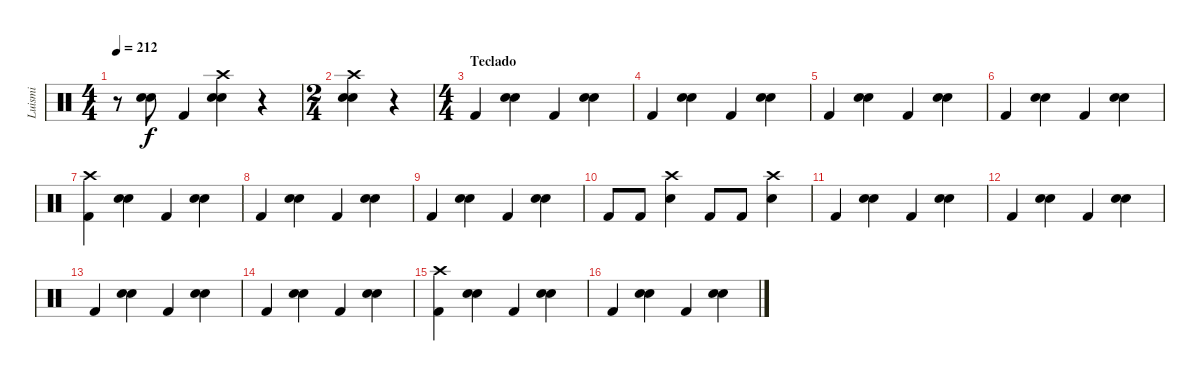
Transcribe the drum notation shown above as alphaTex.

\track ("Luismi" "Luismi") {instrument percussion}
\staff {score}
\articulation defaults
\ts (4 4)
\tempo 212
\clef neutral
\ks c
r.8{dy f} ("Electric Snare (hit)" "Snare (hit) 2").8 "Kick (hit) 2".4 ("Crash high (hit)" "Electric Snare (hit)" "Snare (hit) 2").4 r.4 |
\ts (2 4)
("Crash high (hit)" "Electric Snare (hit)" "Snare (hit) 2").4 r.4 |
\ts (4 4)
\section ("" "Teclado")
"Kick (hit) 2".4 ("Electric Snare (hit)" "Snare (hit) 2").4 "Kick (hit) 2".4 ("Electric Snare (hit)" "Snare (hit) 2").4 |
"Kick (hit) 2".4 ("Electric Snare (hit)" "Snare (hit) 2").4 "Kick (hit) 2".4 ("Electric Snare (hit)" "Snare (hit) 2").4 |
"Kick (hit) 2".4 ("Snare (hit) 2" "Electric Snare (hit)").4 "Kick (hit) 2".4 ("Electric Snare (hit)" "Snare (hit) 2").4 |
"Kick (hit) 2".4 ("Electric Snare (hit)" "Snare (hit) 2").4 "Kick (hit) 2".4 ("Electric Snare (hit)" "Snare (hit) 2").4 |
("Crash high (hit)" "Kick (hit) 2").4 ("Electric Snare (hit)" "Snare (hit) 2").4 "Kick (hit) 2".4 ("Electric Snare (hit)" "Snare (hit) 2").4 |
"Kick (hit) 2".4 ("Electric Snare (hit)" "Snare (hit) 2").4 "Kick (hit) 2".4 ("Electric Snare (hit)" "Snare (hit) 2").4 |
"Kick (hit) 2".4 ("Snare (hit) 2" "Electric Snare (hit)").4 "Kick (hit) 2".4 ("Electric Snare (hit)" "Snare (hit) 2").4 |
"Kick (hit) 2".8 "Kick (hit) 2".8 ("Crash high (hit)" "Electric Snare (hit)").4 "Kick (hit) 2".8 "Kick (hit) 2".8 ("Crash high (hit)" "Electric Snare (hit)").4 |
"Kick (hit) 2".4 ("Electric Snare (hit)" "Snare (hit) 2").4 "Kick (hit) 2".4 ("Electric Snare (hit)" "Snare (hit) 2").4 |
"Kick (hit) 2".4 ("Electric Snare (hit)" "Snare (hit) 2").4 "Kick (hit) 2".4 ("Electric Snare (hit)" "Snare (hit) 2").4 |
"Kick (hit) 2".4 ("Snare (hit) 2" "Electric Snare (hit)").4 "Kick (hit) 2".4 ("Electric Snare (hit)" "Snare (hit) 2").4 |
"Kick (hit) 2".4 ("Electric Snare (hit)" "Snare (hit) 2").4 "Kick (hit) 2".4 ("Electric Snare (hit)" "Snare (hit) 2").4 |
("Crash high (hit)" "Kick (hit) 2").4 ("Electric Snare (hit)" "Snare (hit) 2").4 "Kick (hit) 2".4 ("Electric Snare (hit)" "Snare (hit) 2").4 |
"Kick (hit) 2".4 ("Electric Snare (hit)" "Snare (hit) 2").4 "Kick (hit) 2".4 ("Electric Snare (hit)" "Snare (hit) 2").4
